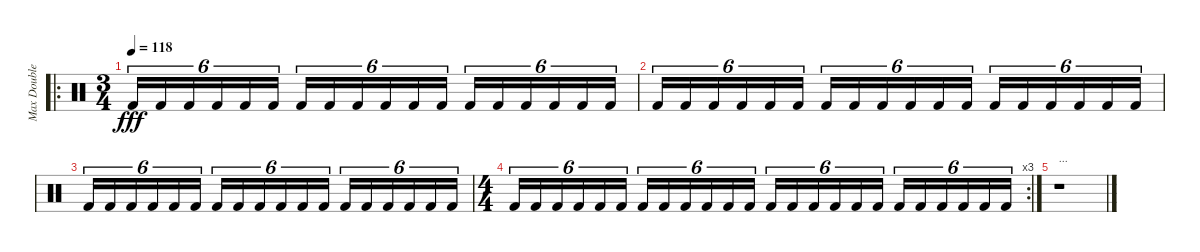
\track ("Max Double Pedal" "Max Double") {instrument percussion}
\staff {score}
\articulation defaults
\ro
\ts (3 4)
\tempo 118
\clef neutral
\ks c "Kick (hit) 2".16{tu (6 4) dy fff} "Kick (hit) 2".16{tu (6 4)} "Kick (hit) 2".16{tu (6 4)} "Kick (hit) 2".16{tu (6 4)} "Kick (hit) 2".16{tu (6 4)} "Kick (hit) 2".16{tu (6 4)} "Kick (hit) 2".16{tu (6 4)} "Kick (hit) 2".16{tu (6 4)} "Kick (hit) 2".16{tu (6 4)} "Kick (hit) 2".16{tu (6 4)} "Kick (hit) 2".16{tu (6 4)} "Kick (hit) 2".16{tu (6 4)} "Kick (hit) 2".16{tu (6 4)} "Kick (hit) 2".16{tu (6 4)} "Kick (hit) 2".16{tu (6 4)} "Kick (hit) 2".16{tu (6 4)} "Kick (hit) 2".16{tu (6 4)} "Kick (hit) 2".16{tu (6 4)}
|
"Kick (hit) 2".16{tu (6 4)} "Kick (hit) 2".16{tu (6 4)} "Kick (hit) 2".16{tu (6 4)} "Kick (hit) 2".16{tu (6 4)} "Kick (hit) 2".16{tu (6 4)} "Kick (hit) 2".16{tu (6 4)} "Kick (hit) 2".16{tu (6 4)} "Kick (hit) 2".16{tu (6 4)} "Kick (hit) 2".16{tu (6 4)} "Kick (hit) 2".16{tu (6 4)} "Kick (hit) 2".16{tu (6 4)} "Kick (hit) 2".16{tu (6 4)} "Kick (hit) 2".16{tu (6 4)} "Kick (hit) 2".16{tu (6 4)} "Kick (hit) 2".16{tu (6 4)} "Kick (hit) 2".16{tu (6 4)} "Kick (hit) 2".16{tu (6 4)} "Kick (hit) 2".16{tu (6 4)} |
"Kick (hit) 2".16{tu (6 4)} "Kick (hit) 2".16{tu (6 4)} "Kick (hit) 2".16{tu (6 4)} "Kick (hit) 2".16{tu (6 4)} "Kick (hit) 2".16{tu (6 4)} "Kick (hit) 2".16{tu (6 4)} "Kick (hit) 2".16{tu (6 4)} "Kick (hit) 2".16{tu (6 4)} "Kick (hit) 2".16{tu (6 4)} "Kick (hit) 2".16{tu (6 4)} "Kick (hit) 2".16{tu (6 4)} "Kick (hit) 2".16{tu (6 4)} "Kick (hit) 2".16{tu (6 4)} "Kick (hit) 2".16{tu (6 4)} "Kick (hit) 2".16{tu (6 4)} "Kick (hit) 2".16{tu (6 4)} "Kick (hit) 2".16{tu (6 4)} "Kick (hit) 2".16{tu (6 4)} |
\rc 3
\ts (4 4)
"Kick (hit) 2".16{tu (6 4)} "Kick (hit) 2".16{tu (6 4)} "Kick (hit) 2".16{tu (6 4)} "Kick (hit) 2".16{tu (6 4)} "Kick (hit) 2".16{tu (6 4)} "Kick (hit) 2".16{tu (6 4)} "Kick (hit) 2".16{tu (6 4)} "Kick (hit) 2".16{tu (6 4)} "Kick (hit) 2".16{tu (6 4)} "Kick (hit) 2".16{tu (6 4)} "Kick (hit) 2".16{tu (6 4)} "Kick (hit) 2".16{tu (6 4)} "Kick (hit) 2".16{tu (6 4)} "Kick (hit) 2".16{tu (6 4)} "Kick (hit) 2".16{tu (6 4)} "Kick (hit) 2".16{tu (6 4)} "Kick (hit) 2".16{tu (6 4)} "Kick (hit) 2".16{tu (6 4)} "Kick (hit) 2".16{tu (6 4)} "Kick (hit) 2".16{tu (6 4)} "Kick (hit) 2".16{tu (6 4)} "Kick (hit) 2".16{tu (6 4)} "Kick (hit) 2".16{tu (6 4)} "Kick (hit) 2".16{tu (6 4)} |
r.1{txt "..."}
